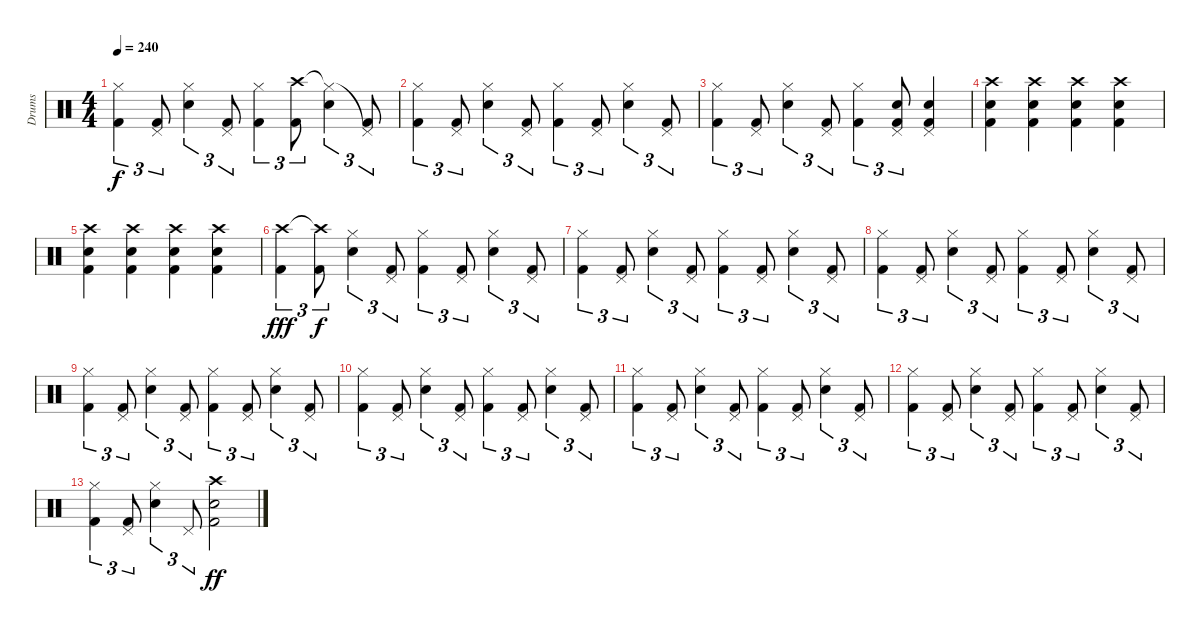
\track ("Drums" "Drums") {instrument percussion}
\staff {score}
\articulation defaults
\ts (4 4)
\tempo 240
\clef neutral
\ks c
("Hi-Hat (closed)" "Kick (hit) 2").4{tu (3 2) dy f} ("Pedal Hi-Hat (hit)" "Kick (hit) 2").8{tu (3 2)} ("Hi-Hat (closed)" "Snare (hit) 2").4{tu (3 2)} ("Pedal Hi-Hat (hit)" "Kick (hit) 2").8{tu (3 2)} ("Hi-Hat (closed)" "Kick (hit) 2").4{tu (3 2)} ("Crash high (hit)" "Kick (hit) 2").8{tu (3 2)} ("Hi-Hat (closed)"{t} "Snare (hit) 2").4{tu (3 2)} ("Pedal Hi-Hat (hit)"{t} "Kick (hit) 2").8{tu (3 2)} |
("Hi-Hat (closed)" "Kick (hit) 2").4{tu (3 2)} ("Pedal Hi-Hat (hit)" "Kick (hit) 2").8{tu (3 2)} ("Hi-Hat (closed)" "Snare (hit) 2").4{tu (3 2)} ("Pedal Hi-Hat (hit)" "Kick (hit) 2").8{tu (3 2)} ("Hi-Hat (closed)" "Kick (hit) 2").4{tu (3 2)} ("Pedal Hi-Hat (hit)" "Kick (hit) 2").8{tu (3 2)} ("Hi-Hat (closed)" "Snare (hit) 2").4{tu (3 2)} ("Pedal Hi-Hat (hit)" "Kick (hit) 2").8{tu (3 2)} |
("Hi-Hat (closed)" "Kick (hit) 2").4{tu (3 2)} ("Pedal Hi-Hat (hit)" "Kick (hit) 2").8{tu (3 2)} ("Hi-Hat (closed)" "Snare (hit) 2").4{tu (3 2)} ("Pedal Hi-Hat (hit)" "Kick (hit) 2").8{tu (3 2)} ("Hi-Hat (closed)" "Kick (hit) 2").4{tu (3 2)} ("Pedal Hi-Hat (hit)" "Snare (hit) 2" "Kick (hit) 2").8{tu (3 2)} ("Pedal Hi-Hat (hit)" "Snare (hit) 2" "Kick (hit) 2").4 |
("Crash high (hit)" "Snare (hit) 2" "Kick (hit) 2").4 ("Crash high (hit)" "Snare (hit) 2" "Kick (hit) 2").4 ("Crash high (hit)" "Snare (hit) 2" "Kick (hit) 2").4 ("Crash high (hit)" "Snare (hit) 2" "Kick (hit) 2").4 |
("Crash high (hit)" "Snare (hit) 2" "Kick (hit) 2").4 ("Crash high (hit)" "Snare (hit) 2" "Kick (hit) 2").4 ("Crash high (hit)" "Snare (hit) 2" "Kick (hit) 2").4 ("Crash high (hit)" "Snare (hit) 2" "Kick (hit) 2").4 |
("Crash high (hit)" "Kick (hit) 2").4{tu (3 2) dy fff} ("Crash high (hit)"{t} "Kick (hit) 2").8{tu (3 2) dy f} ("Hi-Hat (closed)" "Snare (hit) 2").4{tu (3 2)} ("Pedal Hi-Hat (hit)" "Kick (hit) 2").8{tu (3 2)} ("Hi-Hat (closed)" "Kick (hit) 2").4{tu (3 2)} ("Pedal Hi-Hat (hit)" "Kick (hit) 2").8{tu (3 2)} ("Hi-Hat (closed)" "Snare (hit) 2").4{tu (3 2)} ("Pedal Hi-Hat (hit)" "Kick (hit) 2").8{tu (3 2)} |
("Hi-Hat (closed)" "Kick (hit) 2").4{tu (3 2)} ("Pedal Hi-Hat (hit)" "Kick (hit) 2").8{tu (3 2)} ("Hi-Hat (closed)" "Snare (hit) 2").4{tu (3 2)} ("Pedal Hi-Hat (hit)" "Kick (hit) 2").8{tu (3 2)} ("Hi-Hat (closed)" "Kick (hit) 2").4{tu (3 2)} ("Pedal Hi-Hat (hit)" "Kick (hit) 2").8{tu (3 2)} ("Hi-Hat (closed)" "Snare (hit) 2").4{tu (3 2)} ("Pedal Hi-Hat (hit)" "Kick (hit) 2").8{tu (3 2)} |
("Hi-Hat (closed)" "Kick (hit) 2").4{tu (3 2)} ("Pedal Hi-Hat (hit)" "Kick (hit) 2").8{tu (3 2)} ("Hi-Hat (closed)" "Snare (hit) 2").4{tu (3 2)} ("Pedal Hi-Hat (hit)" "Kick (hit) 2").8{tu (3 2)} ("Hi-Hat (closed)" "Kick (hit) 2").4{tu (3 2)} ("Pedal Hi-Hat (hit)" "Kick (hit) 2").8{tu (3 2)} ("Hi-Hat (closed)" "Snare (hit) 2").4{tu (3 2)} ("Pedal Hi-Hat (hit)" "Kick (hit) 2").8{tu (3 2)} |
("Hi-Hat (closed)" "Kick (hit) 2").4{tu (3 2)} ("Pedal Hi-Hat (hit)" "Kick (hit) 2").8{tu (3 2)} ("Hi-Hat (closed)" "Snare (hit) 2").4{tu (3 2)} ("Pedal Hi-Hat (hit)" "Kick (hit) 2").8{tu (3 2)} ("Hi-Hat (closed)" "Kick (hit) 2").4{tu (3 2)} ("Pedal Hi-Hat (hit)" "Kick (hit) 2").8{tu (3 2)} ("Hi-Hat (closed)" "Snare (hit) 2").4{tu (3 2)} ("Pedal Hi-Hat (hit)" "Kick (hit) 2").8{tu (3 2)} |
("Hi-Hat (closed)" "Kick (hit) 2").4{tu (3 2)} ("Pedal Hi-Hat (hit)" "Kick (hit) 2").8{tu (3 2)} ("Hi-Hat (closed)" "Snare (hit) 2").4{tu (3 2)} ("Pedal Hi-Hat (hit)" "Kick (hit) 2").8{tu (3 2)} ("Hi-Hat (closed)" "Kick (hit) 2").4{tu (3 2)} ("Pedal Hi-Hat (hit)" "Kick (hit) 2").8{tu (3 2)} ("Hi-Hat (closed)" "Snare (hit) 2").4{tu (3 2)} ("Pedal Hi-Hat (hit)" "Kick (hit) 2").8{tu (3 2)} |
("Hi-Hat (closed)" "Kick (hit) 2").4{tu (3 2)} ("Pedal Hi-Hat (hit)" "Kick (hit) 2").8{tu (3 2)} ("Hi-Hat (closed)" "Snare (hit) 2").4{tu (3 2)} ("Pedal Hi-Hat (hit)" "Kick (hit) 2").8{tu (3 2)} ("Hi-Hat (closed)" "Kick (hit) 2").4{tu (3 2)} ("Pedal Hi-Hat (hit)" "Kick (hit) 2").8{tu (3 2)} ("Hi-Hat (closed)" "Snare (hit) 2").4{tu (3 2)} ("Pedal Hi-Hat (hit)" "Kick (hit) 2").8{tu (3 2)} |
("Hi-Hat (closed)" "Kick (hit) 2").4{tu (3 2)} ("Pedal Hi-Hat (hit)" "Kick (hit) 2").8{tu (3 2)} ("Hi-Hat (closed)" "Snare (hit) 2").4{tu (3 2)} ("Pedal Hi-Hat (hit)" "Kick (hit) 2").8{tu (3 2)} ("Hi-Hat (closed)" "Kick (hit) 2").4{tu (3 2)} ("Pedal Hi-Hat (hit)" "Kick (hit) 2").8{tu (3 2)} ("Hi-Hat (closed)" "Snare (hit) 2").4{tu (3 2)} ("Pedal Hi-Hat (hit)" "Kick (hit) 2").8{tu (3 2)} |
("Hi-Hat (closed)" "Kick (hit) 2").4{tu (3 2)} ("Pedal Hi-Hat (hit)" "Kick (hit) 2").8{tu (3 2)} ("Hi-Hat (closed)" "Snare (hit) 2").4{tu (3 2)} "Pedal Hi-Hat (hit)".8{tu (3 2)} ("Crash high (hit)" "Snare (hit) 2" "Kick (hit) 2").2{dy ff}
